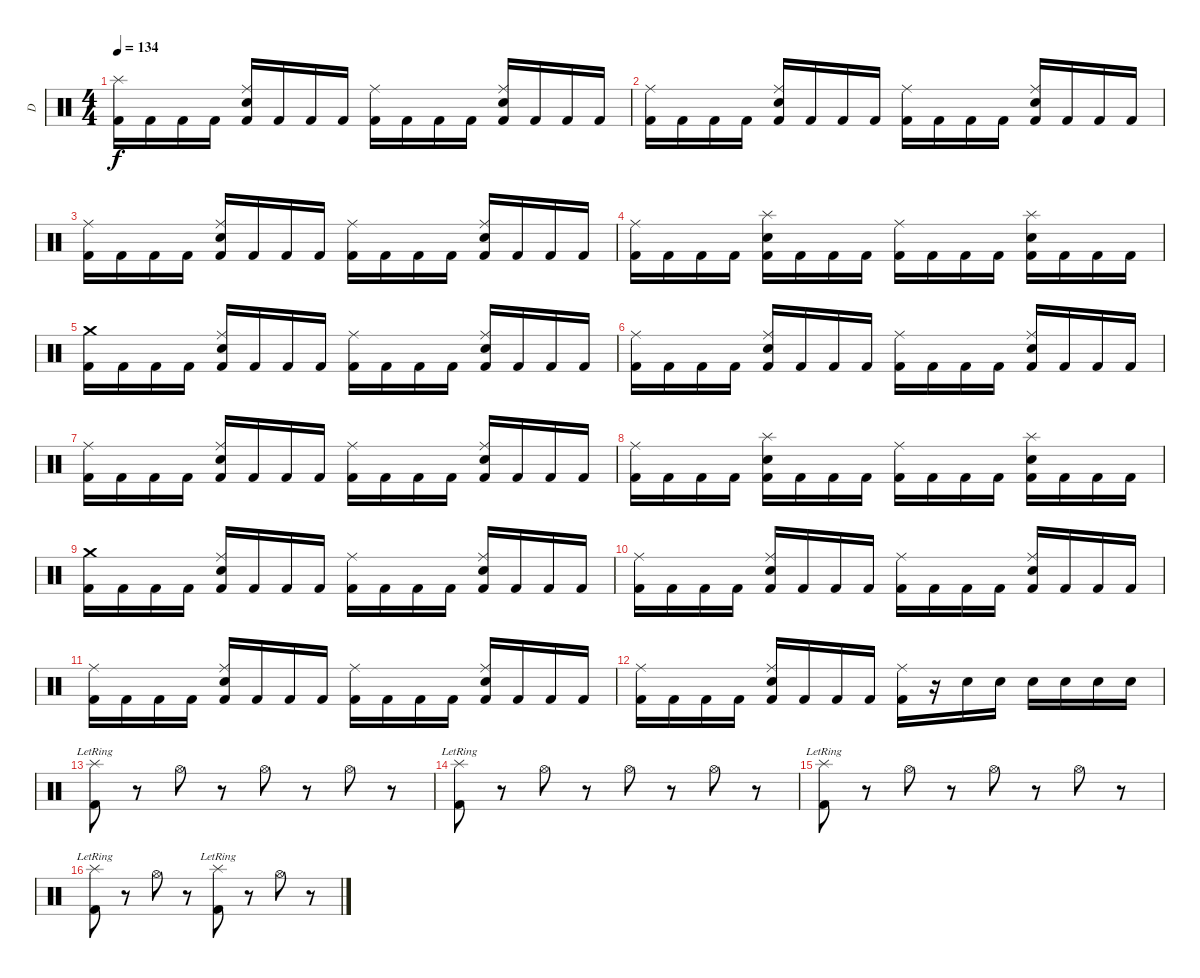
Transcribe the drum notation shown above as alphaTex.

\track ("D" "D") {instrument percussion}
\staff {score}
\articulation defaults
\ts (4 4)
\tempo 134
\clef neutral
\ks c
("Splash (hit)" "Kick (hit) 2").16{dy f} "Kick (hit) 2".16 "Kick (hit) 2".16 "Kick (hit) 2".16 ("Ride (middle)" "Snare (hit) 2" "Kick (hit) 2").16 "Kick (hit) 2".16 "Kick (hit) 2".16 "Kick (hit) 2".16 ("Ride (middle)" "Kick (hit) 2").16 "Kick (hit) 2".16 "Kick (hit) 2".16 "Kick (hit) 2".16 ("Ride (middle)" "Snare (hit) 2" "Kick (hit) 2").16 "Kick (hit) 2".16 "Kick (hit) 2".16 "Kick (hit) 2".16 |
("Ride (middle)" "Kick (hit) 2").16 "Kick (hit) 2".16 "Kick (hit) 2".16 "Kick (hit) 2".16 ("Ride (middle)" "Snare (hit) 2" "Kick (hit) 2").16 "Kick (hit) 2".16 "Kick (hit) 2".16 "Kick (hit) 2".16 ("Ride (middle)" "Kick (hit) 2").16 "Kick (hit) 2".16 "Kick (hit) 2".16 "Kick (hit) 2".16 ("Ride (middle)" "Snare (hit) 2" "Kick (hit) 2").16 "Kick (hit) 2".16 "Kick (hit) 2".16 "Kick (hit) 2".16 |
("Ride (middle)" "Kick (hit) 2").16 "Kick (hit) 2".16 "Kick (hit) 2".16 "Kick (hit) 2".16 ("Ride (middle)" "Snare (hit) 2" "Kick (hit) 2").16 "Kick (hit) 2".16 "Kick (hit) 2".16 "Kick (hit) 2".16 ("Ride (middle)" "Kick (hit) 2").16 "Kick (hit) 2".16 "Kick (hit) 2".16 "Kick (hit) 2".16 ("Ride (middle)" "Snare (hit) 2" "Kick (hit) 2").16 "Kick (hit) 2".16 "Kick (hit) 2".16 "Kick (hit) 2".16 |
("Ride (middle)" "Kick (hit) 2").16 "Kick (hit) 2".16 "Kick (hit) 2".16 "Kick (hit) 2".16 ("Splash (hit)" "Snare (hit) 2" "Kick (hit) 2").16 "Kick (hit) 2".16 "Kick (hit) 2".16 "Kick (hit) 2".16 ("Ride (middle)" "Kick (hit) 2").16 "Kick (hit) 2".16 "Kick (hit) 2".16 "Kick (hit) 2".16 ("Splash (hit)" "Snare (hit) 2" "Kick (hit) 2").16 "Kick (hit) 2".16 "Kick (hit) 2".16 "Kick (hit) 2".16 |
("Crash medium (hit)" "Kick (hit) 2").16 "Kick (hit) 2".16 "Kick (hit) 2".16 "Kick (hit) 2".16 ("Ride (middle)" "Snare (hit) 2" "Kick (hit) 2").16 "Kick (hit) 2".16 "Kick (hit) 2".16 "Kick (hit) 2".16 ("Ride (middle)" "Kick (hit) 2").16 "Kick (hit) 2".16 "Kick (hit) 2".16 "Kick (hit) 2".16 ("Ride (middle)" "Snare (hit) 2" "Kick (hit) 2").16 "Kick (hit) 2".16 "Kick (hit) 2".16 "Kick (hit) 2".16 |
("Ride (middle)" "Kick (hit) 2").16 "Kick (hit) 2".16 "Kick (hit) 2".16 "Kick (hit) 2".16 ("Ride (middle)" "Snare (hit) 2" "Kick (hit) 2").16 "Kick (hit) 2".16 "Kick (hit) 2".16 "Kick (hit) 2".16 ("Ride (middle)" "Kick (hit) 2").16 "Kick (hit) 2".16 "Kick (hit) 2".16 "Kick (hit) 2".16 ("Ride (middle)" "Snare (hit) 2" "Kick (hit) 2").16 "Kick (hit) 2".16 "Kick (hit) 2".16 "Kick (hit) 2".16 |
("Ride (middle)" "Kick (hit) 2").16 "Kick (hit) 2".16 "Kick (hit) 2".16 "Kick (hit) 2".16 ("Ride (middle)" "Snare (hit) 2" "Kick (hit) 2").16 "Kick (hit) 2".16 "Kick (hit) 2".16 "Kick (hit) 2".16 ("Ride (middle)" "Kick (hit) 2").16 "Kick (hit) 2".16 "Kick (hit) 2".16 "Kick (hit) 2".16 ("Ride (middle)" "Snare (hit) 2" "Kick (hit) 2").16 "Kick (hit) 2".16 "Kick (hit) 2".16 "Kick (hit) 2".16 |
("Ride (middle)" "Kick (hit) 2").16 "Kick (hit) 2".16 "Kick (hit) 2".16 "Kick (hit) 2".16 ("Splash (hit)" "Snare (hit) 2" "Kick (hit) 2").16 "Kick (hit) 2".16 "Kick (hit) 2".16 "Kick (hit) 2".16 ("Ride (middle)" "Kick (hit) 2").16 "Kick (hit) 2".16 "Kick (hit) 2".16 "Kick (hit) 2".16 ("Splash (hit)" "Snare (hit) 2" "Kick (hit) 2").16 "Kick (hit) 2".16 "Kick (hit) 2".16 "Kick (hit) 2".16 |
("Crash medium (hit)" "Kick (hit) 2").16 "Kick (hit) 2".16 "Kick (hit) 2".16 "Kick (hit) 2".16 ("Ride (middle)" "Snare (hit) 2" "Kick (hit) 2").16 "Kick (hit) 2".16 "Kick (hit) 2".16 "Kick (hit) 2".16 ("Ride (middle)" "Kick (hit) 2").16 "Kick (hit) 2".16 "Kick (hit) 2".16 "Kick (hit) 2".16 ("Ride (middle)" "Snare (hit) 2" "Kick (hit) 2").16 "Kick (hit) 2".16 "Kick (hit) 2".16 "Kick (hit) 2".16 |
("Ride (middle)" "Kick (hit) 2").16 "Kick (hit) 2".16 "Kick (hit) 2".16 "Kick (hit) 2".16 ("Ride (middle)" "Snare (hit) 2" "Kick (hit) 2").16 "Kick (hit) 2".16 "Kick (hit) 2".16 "Kick (hit) 2".16 ("Ride (middle)" "Kick (hit) 2").16 "Kick (hit) 2".16 "Kick (hit) 2".16 "Kick (hit) 2".16 ("Ride (middle)" "Snare (hit) 2" "Kick (hit) 2").16 "Kick (hit) 2".16 "Kick (hit) 2".16 "Kick (hit) 2".16 |
("Ride (middle)" "Kick (hit) 2").16 "Kick (hit) 2".16 "Kick (hit) 2".16 "Kick (hit) 2".16 ("Ride (middle)" "Snare (hit) 2" "Kick (hit) 2").16 "Kick (hit) 2".16 "Kick (hit) 2".16 "Kick (hit) 2".16 ("Ride (middle)" "Kick (hit) 2").16 "Kick (hit) 2".16 "Kick (hit) 2".16 "Kick (hit) 2".16 ("Ride (middle)" "Snare (hit) 2" "Kick (hit) 2").16 "Kick (hit) 2".16 "Kick (hit) 2".16 "Kick (hit) 2".16 |
("Ride (middle)" "Kick (hit) 2").16 "Kick (hit) 2".16 "Kick (hit) 2".16 "Kick (hit) 2".16 ("Ride (middle)" "Snare (hit) 2" "Kick (hit) 2").16 "Kick (hit) 2".16 "Kick (hit) 2".16 "Kick (hit) 2".16 ("Ride (middle)" "Kick (hit) 2").16 r.16 "Snare (hit) 2".16 "Snare (hit) 2".16 "Snare (hit) 2".16 "Snare (hit) 2".16 "Snare (hit) 2".16 "Snare (hit) 2".16 |
("Splash (hit)"{lr} "Kick (hit) 2").8 r.8 "Hi-Hat (open)".8 r.8 "Hi-Hat (open)".8 r.8 "Hi-Hat (open)".8 r.8 |
("Splash (hit)"{lr} "Kick (hit) 2").8 r.8 "Hi-Hat (open)".8 r.8 "Hi-Hat (open)".8 r.8 "Hi-Hat (open)".8 r.8 |
("Splash (hit)"{lr} "Kick (hit) 2").8 r.8 "Hi-Hat (open)".8 r.8 "Hi-Hat (open)".8 r.8 "Hi-Hat (open)".8 r.8 |
("Splash (hit)"{lr} "Kick (hit) 2").8 r.8 "Hi-Hat (open)".8 r.8 ("Splash (hit)"{lr} "Kick (hit) 2").8 r.8 "Hi-Hat (open)".8 r.8
